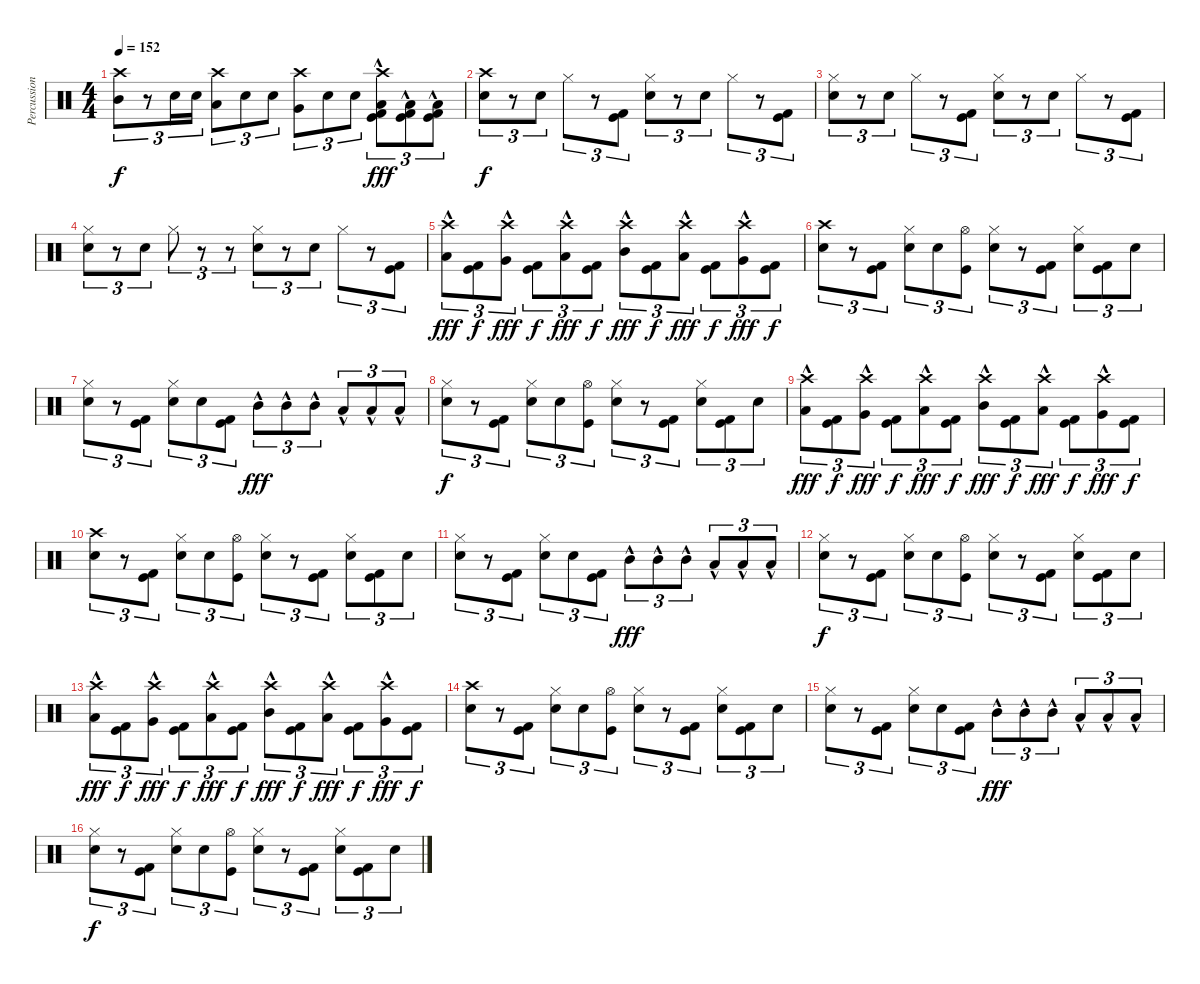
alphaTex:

\track ("Percussion" "Percussion") {instrument percussion}
\staff {score}
\articulation defaults
\ts (4 4)
\tempo 152
\clef neutral
\ks c
("Crash high (hit)" "Mid Tom (hit)").8{tu (3 2) dy f} r.8{tu (3 2)} "Electric Snare (hit)".16{tu (3 2)} "Electric Snare (hit)".16{tu (3 2)} ("Crash high (hit)" "Low Tom (hit)").8{tu (3 2)} "Electric Snare (hit)".8{tu (3 2)} "Electric Snare (hit)".8{tu (3 2)} ("Crash high (hit)" "Very Low Tom (hit)").8{tu (3 2)} "Electric Snare (hit)".8{tu (3 2)} "Electric Snare (hit)".8{tu (3 2)} ("Crash high (hit)" "Low Floor Tom (hit)"{hac} "Kick (hit) 2" "Kick (hit)").8{tu (3 2) dy fff} ("Low Floor Tom (hit)"{hac} "Kick (hit) 2" "Kick (hit)").8{tu (3 2)} ("Low Floor Tom (hit)"{hac} "Kick (hit) 2" "Kick (hit)").8{tu (3 2)} |
("Crash high (hit)" "Electric Snare (hit)").8{tu (3 2) dy f} r.8{tu (3 2)} "Electric Snare (hit)".8{tu (3 2)} "Hi-Hat (closed)".8{tu (3 2)} r.8{tu (3 2)} ("Kick (hit) 2" "Kick (hit)").8{tu (3 2)} ("Hi-Hat (closed)" "Electric Snare (hit)").8{tu (3 2)} r.8{tu (3 2)} "Electric Snare (hit)".8{tu (3 2)} "Hi-Hat (closed)".8{tu (3 2)} r.8{tu (3 2)} ("Kick (hit) 2" "Kick (hit)").8{tu (3 2)} |
("Hi-Hat (closed)" "Electric Snare (hit)").8{tu (3 2)} r.8{tu (3 2)} "Electric Snare (hit)".8{tu (3 2)} "Hi-Hat (closed)".8{tu (3 2)} r.8{tu (3 2)} ("Kick (hit) 2" "Kick (hit)").8{tu (3 2)} ("Hi-Hat (closed)" "Electric Snare (hit)").8{tu (3 2)} r.8{tu (3 2)} "Electric Snare (hit)".8{tu (3 2)} "Hi-Hat (closed)".8{tu (3 2)} r.8{tu (3 2)} ("Kick (hit) 2" "Kick (hit)").8{tu (3 2)} |
("Hi-Hat (closed)" "Electric Snare (hit)").8{tu (3 2)} r.8{tu (3 2)} "Electric Snare (hit)".8{tu (3 2)} "Hi-Hat (closed)".8{tu (3 2)} r.8{tu (3 2)} r.8{tu (3 2)} ("Hi-Hat (closed)" "Electric Snare (hit)").8{tu (3 2)} r.8{tu (3 2)} "Electric Snare (hit)".8{tu (3 2)} "Hi-Hat (closed)".8{tu (3 2)} r.8{tu (3 2)} ("Kick (hit)" "Kick (hit) 2").8{tu (3 2)} |
("Crash high (hit)" "Low Floor Tom (hit)"{hac}).8{tu (3 2) dy fff} ("Kick (hit) 2" "Kick (hit)").8{tu (3 2) dy f} ("Crash high (hit)" "Very Low Tom (hit)"{hac}).8{tu (3 2) dy fff} ("Kick (hit) 2" "Kick (hit)").8{tu (3 2) dy f} ("Crash high (hit)" "Low Tom (hit)"{hac}).8{tu (3 2) dy fff} ("Kick (hit) 2" "Kick (hit)").8{tu (3 2) dy f} ("Crash high (hit)" "Mid Tom (hit)"{hac}).8{tu (3 2) dy fff} ("Kick (hit) 2" "Kick (hit)").8{tu (3 2) dy f} ("Crash high (hit)" "Low Tom (hit)"{hac}).8{tu (3 2) dy fff} ("Kick (hit) 2" "Kick (hit)").8{tu (3 2) dy f} ("Crash high (hit)" "Very Low Tom (hit)"{hac}).8{tu (3 2) dy fff} ("Kick (hit) 2" "Kick (hit)").8{tu (3 2) dy f} |
("Crash high (hit)" "Electric Snare (hit)").8{tu (3 2)} r.8{tu (3 2)} ("Kick (hit) 2" "Kick (hit)").8{tu (3 2)} ("Hi-Hat (closed)" "Electric Snare (hit)").8{tu (3 2)} "Electric Snare (hit)".8{tu (3 2)} ("Hi-Hat (open)" "Kick (hit)").8{tu (3 2)} ("Hi-Hat (closed)" "Electric Snare (hit)").8{tu (3 2)} r.8{tu (3 2)} ("Kick (hit) 2" "Kick (hit)").8{tu (3 2)} ("Hi-Hat (closed)" "Electric Snare (hit)").8{tu (3 2)} ("Kick (hit) 2" "Kick (hit)").8{tu (3 2)} "Electric Snare (hit)".8{tu (3 2)} |
("Hi-Hat (closed)" "Electric Snare (hit)").8{tu (3 2)} r.8{tu (3 2)} ("Kick (hit) 2" "Kick (hit)").8{tu (3 2)} ("Hi-Hat (closed)" "Electric Snare (hit)").8{tu (3 2)} "Electric Snare (hit)".8{tu (3 2)} ("Kick (hit) 2" "Kick (hit)").8{tu (3 2)} "Mid Tom (hit)"{hac}.8{tu (3 2) dy fff} "Mid Tom (hit)"{hac}.8{tu (3 2)} "Mid Tom (hit)"{hac}.8{tu (3 2)} "Low Tom (hit)"{hac}.8{tu (3 2)} "Low Tom (hit)"{hac}.8{tu (3 2)} "Low Tom (hit)"{hac}.8{tu (3 2)} |
("Hi-Hat (closed)" "Electric Snare (hit)").8{tu (3 2) dy f} r.8{tu (3 2)} ("Kick (hit) 2" "Kick (hit)").8{tu (3 2)} ("Hi-Hat (closed)" "Electric Snare (hit)").8{tu (3 2)} "Electric Snare (hit)".8{tu (3 2)} ("Hi-Hat (open)" "Kick (hit)").8{tu (3 2)} ("Hi-Hat (closed)" "Electric Snare (hit)").8{tu (3 2)} r.8{tu (3 2)} ("Kick (hit) 2" "Kick (hit)").8{tu (3 2)} ("Hi-Hat (closed)" "Electric Snare (hit)").8{tu (3 2)} ("Kick (hit) 2" "Kick (hit)").8{tu (3 2)} "Electric Snare (hit)".8{tu (3 2)} |
("Crash high (hit)" "Low Floor Tom (hit)"{hac}).8{tu (3 2) dy fff} ("Kick (hit) 2" "Kick (hit)").8{tu (3 2) dy f} ("Crash high (hit)" "Very Low Tom (hit)"{hac}).8{tu (3 2) dy fff} ("Kick (hit) 2" "Kick (hit)").8{tu (3 2) dy f} ("Crash high (hit)" "Low Tom (hit)"{hac}).8{tu (3 2) dy fff} ("Kick (hit) 2" "Kick (hit)").8{tu (3 2) dy f} ("Crash high (hit)" "Mid Tom (hit)"{hac}).8{tu (3 2) dy fff} ("Kick (hit) 2" "Kick (hit)").8{tu (3 2) dy f} ("Crash high (hit)" "Low Tom (hit)"{hac}).8{tu (3 2) dy fff} ("Kick (hit) 2" "Kick (hit)").8{tu (3 2) dy f} ("Crash high (hit)" "Very Low Tom (hit)"{hac}).8{tu (3 2) dy fff} ("Kick (hit) 2" "Kick (hit)").8{tu (3 2) dy f} |
("Crash high (hit)" "Electric Snare (hit)").8{tu (3 2)} r.8{tu (3 2)} ("Kick (hit) 2" "Kick (hit)").8{tu (3 2)} ("Hi-Hat (closed)" "Electric Snare (hit)").8{tu (3 2)} "Electric Snare (hit)".8{tu (3 2)} ("Hi-Hat (open)" "Kick (hit)").8{tu (3 2)} ("Hi-Hat (closed)" "Electric Snare (hit)").8{tu (3 2)} r.8{tu (3 2)} ("Kick (hit) 2" "Kick (hit)").8{tu (3 2)} ("Hi-Hat (closed)" "Electric Snare (hit)").8{tu (3 2)} ("Kick (hit) 2" "Kick (hit)").8{tu (3 2)} "Electric Snare (hit)".8{tu (3 2)} |
("Hi-Hat (closed)" "Electric Snare (hit)").8{tu (3 2)} r.8{tu (3 2)} ("Kick (hit) 2" "Kick (hit)").8{tu (3 2)} ("Hi-Hat (closed)" "Electric Snare (hit)").8{tu (3 2)} "Electric Snare (hit)".8{tu (3 2)} ("Kick (hit) 2" "Kick (hit)").8{tu (3 2)} "Mid Tom (hit)"{hac}.8{tu (3 2) dy fff} "Mid Tom (hit)"{hac}.8{tu (3 2)} "Mid Tom (hit)"{hac}.8{tu (3 2)} "Low Tom (hit)"{hac}.8{tu (3 2)} "Low Tom (hit)"{hac}.8{tu (3 2)} "Low Tom (hit)"{hac}.8{tu (3 2)} |
("Hi-Hat (closed)" "Electric Snare (hit)").8{tu (3 2) dy f} r.8{tu (3 2)} ("Kick (hit) 2" "Kick (hit)").8{tu (3 2)} ("Hi-Hat (closed)" "Electric Snare (hit)").8{tu (3 2)} "Electric Snare (hit)".8{tu (3 2)} ("Hi-Hat (open)" "Kick (hit)").8{tu (3 2)} ("Hi-Hat (closed)" "Electric Snare (hit)").8{tu (3 2)} r.8{tu (3 2)} ("Kick (hit) 2" "Kick (hit)").8{tu (3 2)} ("Hi-Hat (closed)" "Electric Snare (hit)").8{tu (3 2)} ("Kick (hit) 2" "Kick (hit)").8{tu (3 2)} "Electric Snare (hit)".8{tu (3 2)} |
("Crash high (hit)" "Low Floor Tom (hit)"{hac}).8{tu (3 2) dy fff} ("Kick (hit) 2" "Kick (hit)").8{tu (3 2) dy f} ("Crash high (hit)" "Very Low Tom (hit)"{hac}).8{tu (3 2) dy fff} ("Kick (hit) 2" "Kick (hit)").8{tu (3 2) dy f} ("Crash high (hit)" "Low Tom (hit)"{hac}).8{tu (3 2) dy fff} ("Kick (hit) 2" "Kick (hit)").8{tu (3 2) dy f} ("Crash high (hit)" "Mid Tom (hit)"{hac}).8{tu (3 2) dy fff} ("Kick (hit) 2" "Kick (hit)").8{tu (3 2) dy f} ("Crash high (hit)" "Low Tom (hit)"{hac}).8{tu (3 2) dy fff} ("Kick (hit) 2" "Kick (hit)").8{tu (3 2) dy f} ("Crash high (hit)" "Very Low Tom (hit)"{hac}).8{tu (3 2) dy fff} ("Kick (hit) 2" "Kick (hit)").8{tu (3 2) dy f} |
("Crash high (hit)" "Electric Snare (hit)").8{tu (3 2)} r.8{tu (3 2)} ("Kick (hit) 2" "Kick (hit)").8{tu (3 2)} ("Hi-Hat (closed)" "Electric Snare (hit)").8{tu (3 2)} "Electric Snare (hit)".8{tu (3 2)} ("Hi-Hat (open)" "Kick (hit)").8{tu (3 2)} ("Hi-Hat (closed)" "Electric Snare (hit)").8{tu (3 2)} r.8{tu (3 2)} ("Kick (hit) 2" "Kick (hit)").8{tu (3 2)} ("Hi-Hat (closed)" "Electric Snare (hit)").8{tu (3 2)} ("Kick (hit) 2" "Kick (hit)").8{tu (3 2)} "Electric Snare (hit)".8{tu (3 2)} |
("Hi-Hat (closed)" "Electric Snare (hit)").8{tu (3 2)} r.8{tu (3 2)} ("Kick (hit) 2" "Kick (hit)").8{tu (3 2)} ("Hi-Hat (closed)" "Electric Snare (hit)").8{tu (3 2)} "Electric Snare (hit)".8{tu (3 2)} ("Kick (hit) 2" "Kick (hit)").8{tu (3 2)} "Mid Tom (hit)"{hac}.8{tu (3 2) dy fff} "Mid Tom (hit)"{hac}.8{tu (3 2)} "Mid Tom (hit)"{hac}.8{tu (3 2)} "Low Tom (hit)"{hac}.8{tu (3 2)} "Low Tom (hit)"{hac}.8{tu (3 2)} "Low Tom (hit)"{hac}.8{tu (3 2)} |
("Hi-Hat (closed)" "Electric Snare (hit)").8{tu (3 2) dy f} r.8{tu (3 2)} ("Kick (hit) 2" "Kick (hit)").8{tu (3 2)} ("Hi-Hat (closed)" "Electric Snare (hit)").8{tu (3 2)} "Electric Snare (hit)".8{tu (3 2)} ("Hi-Hat (open)" "Kick (hit)").8{tu (3 2)} ("Hi-Hat (closed)" "Electric Snare (hit)").8{tu (3 2)} r.8{tu (3 2)} ("Kick (hit) 2" "Kick (hit)").8{tu (3 2)} ("Hi-Hat (closed)" "Electric Snare (hit)").8{tu (3 2)} ("Kick (hit) 2" "Kick (hit)").8{tu (3 2)} "Electric Snare (hit)".8{tu (3 2)}
